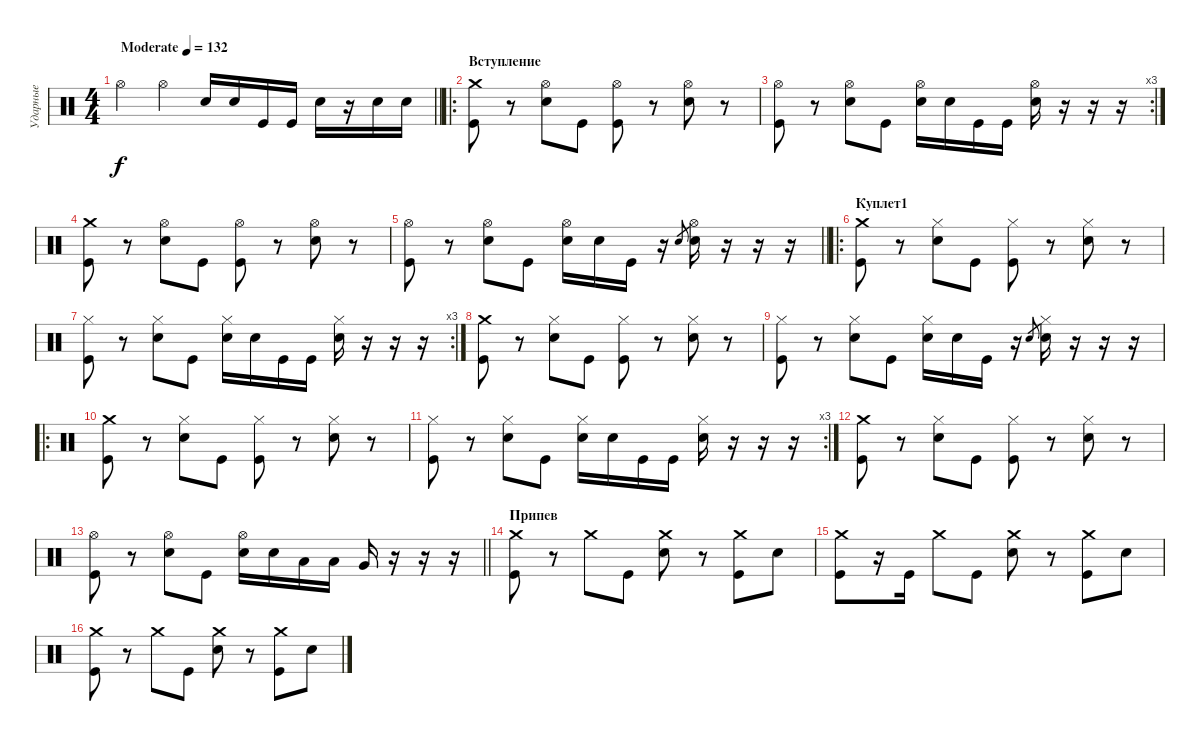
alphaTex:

\track ("Ударные" "Ударные") {instrument percussion}
\staff {score}
\articulation defaults
\ts (4 4)
\tempo (132 "Moderate")
\clef neutral
\barLineRight lightlight
\ks c "Hi-Hat (open)".4{dy f} "Hi-Hat (open)".4 "Electric Snare (hit)".16 "Electric Snare (hit)".16 "Kick (hit)".16 "Kick (hit)".16 "Electric Snare (hit)".16
r.16 "Electric Snare (hit)".16 "Electric Snare (hit)".16 |
\ro
\section ("" "Вступление")
("Crash medium (hit)" "Kick (hit)").8 r.8 ("Hi-Hat (open)" "Electric Snare (hit)").8 "Kick (hit)".8 ("Hi-Hat (open)" "Kick (hit)").8 r.8 ("Hi-Hat (open)" "Electric Snare (hit)").8 r.8 |
\rc 3
("Hi-Hat (open)" "Kick (hit)").8 r.8 ("Hi-Hat (open)" "Electric Snare (hit)").8 "Kick (hit)".8 ("Hi-Hat (open)" "Electric Snare (hit)").16 "Electric Snare (hit)".16 "Kick (hit)".16 "Kick (hit)".16 ("Hi-Hat (open)" "Electric Snare (hit)").16 r.16 r.16 r.16 |
("Crash medium (hit)" "Kick (hit)").8 r.8 ("Hi-Hat (open)" "Electric Snare (hit)").8 "Kick (hit)".8 ("Hi-Hat (open)" "Kick (hit)").8 r.8 ("Hi-Hat (open)" "Electric Snare (hit)").8 r.8 |
\barLineRight lightlight
("Hi-Hat (open)" "Kick (hit)").8 r.8 ("Hi-Hat (open)" "Electric Snare (hit)").8 "Kick (hit)".8 ("Hi-Hat (open)" "Electric Snare (hit)").16 "Electric Snare (hit)".16 "Kick (hit)".16 r.16 "Electric Snare (hit)".8{gr} ("Hi-Hat (open)" "Electric Snare (hit)").16 r.16 r.16 r.16 |
\ro
\section ("" "Куплет1")
("Crash medium (hit)" "Kick (hit)").8 r.8 ("Hi-Hat (closed)" "Electric Snare (hit)").8 "Kick (hit)".8 ("Hi-Hat (closed)" "Kick (hit)").8 r.8 ("Hi-Hat (closed)" "Electric Snare (hit)").8 r.8 |
\rc 3
("Hi-Hat (closed)" "Kick (hit)").8 r.8 ("Hi-Hat (closed)" "Electric Snare (hit)").8 "Kick (hit)".8 ("Hi-Hat (closed)" "Electric Snare (hit)").16 "Electric Snare (hit)".16 "Kick (hit)".16 "Kick (hit)".16 ("Hi-Hat (closed)" "Electric Snare (hit)").16 r.16 r.16 r.16 |
("Crash medium (hit)" "Kick (hit)").8 r.8 ("Hi-Hat (closed)" "Electric Snare (hit)").8 "Kick (hit)".8 ("Hi-Hat (closed)" "Kick (hit)").8 r.8 ("Hi-Hat (closed)" "Electric Snare (hit)").8 r.8 |
("Hi-Hat (closed)" "Kick (hit)").8 r.8 ("Hi-Hat (closed)" "Electric Snare (hit)").8 "Kick (hit)".8 ("Hi-Hat (closed)" "Electric Snare (hit)").16 "Electric Snare (hit)".16 "Kick (hit)".16 r.16 "Electric Snare (hit)".8{gr} ("Hi-Hat (closed)" "Electric Snare (hit)").16 r.16 r.16 r.16 |
\ro
("Crash medium (hit)" "Kick (hit)").8 r.8 ("Hi-Hat (closed)" "Electric Snare (hit)").8 "Kick (hit)".8 ("Hi-Hat (closed)" "Kick (hit)").8 r.8 ("Hi-Hat (closed)" "Electric Snare (hit)").8 r.8 |
\rc 3
("Hi-Hat (closed)" "Kick (hit)").8 r.8 ("Hi-Hat (closed)" "Electric Snare (hit)").8 "Kick (hit)".8 ("Hi-Hat (closed)" "Electric Snare (hit)").16 "Electric Snare (hit)".16 "Kick (hit)".16 "Kick (hit)".16 ("Hi-Hat (closed)" "Electric Snare (hit)").16 r.16 r.16 r.16 |
("Crash medium (hit)" "Kick (hit)").8 r.8 ("Hi-Hat (closed)" "Electric Snare (hit)").8 "Kick (hit)".8 ("Hi-Hat (closed)" "Kick (hit)").8 r.8 ("Hi-Hat (closed)" "Electric Snare (hit)").8 r.8 |
\barLineRight lightlight
("Hi-Hat (open)" "Kick (hit)").8 r.8 ("Hi-Hat (open)" "Electric Snare (hit)").8 "Kick (hit)".8 ("Hi-Hat (open)" "Electric Snare (hit)").16 "Electric Snare (hit)".16 "Low Tom (hit)".16 "Low Tom (hit)".16 "Very Low Tom (hit)".16 r.16 r.16 r.16 |
\section ("" "Припев")
("Crash medium (hit)" "Kick (hit)").8 r.8 "Crash medium (hit)".8 "Kick (hit)".8 ("Crash medium (hit)" "Electric Snare (hit)").8 r.8 ("Crash medium (hit)" "Kick (hit)").8 "Electric Snare (hit)".8 |
("Crash medium (hit)" "Kick (hit)").8 r.16 "Kick (hit)".16 "Crash medium (hit)".8 "Kick (hit)".8 ("Crash medium (hit)" "Electric Snare (hit)").8 r.8 ("Crash medium (hit)" "Kick (hit)").8 "Electric Snare (hit)".8 |
("Crash medium (hit)" "Kick (hit)").8 r.8 "Crash medium (hit)".8 "Kick (hit)".8 ("Crash medium (hit)" "Electric Snare (hit)").8 r.8 ("Crash medium (hit)" "Kick (hit)").8 "Electric Snare (hit)".8
